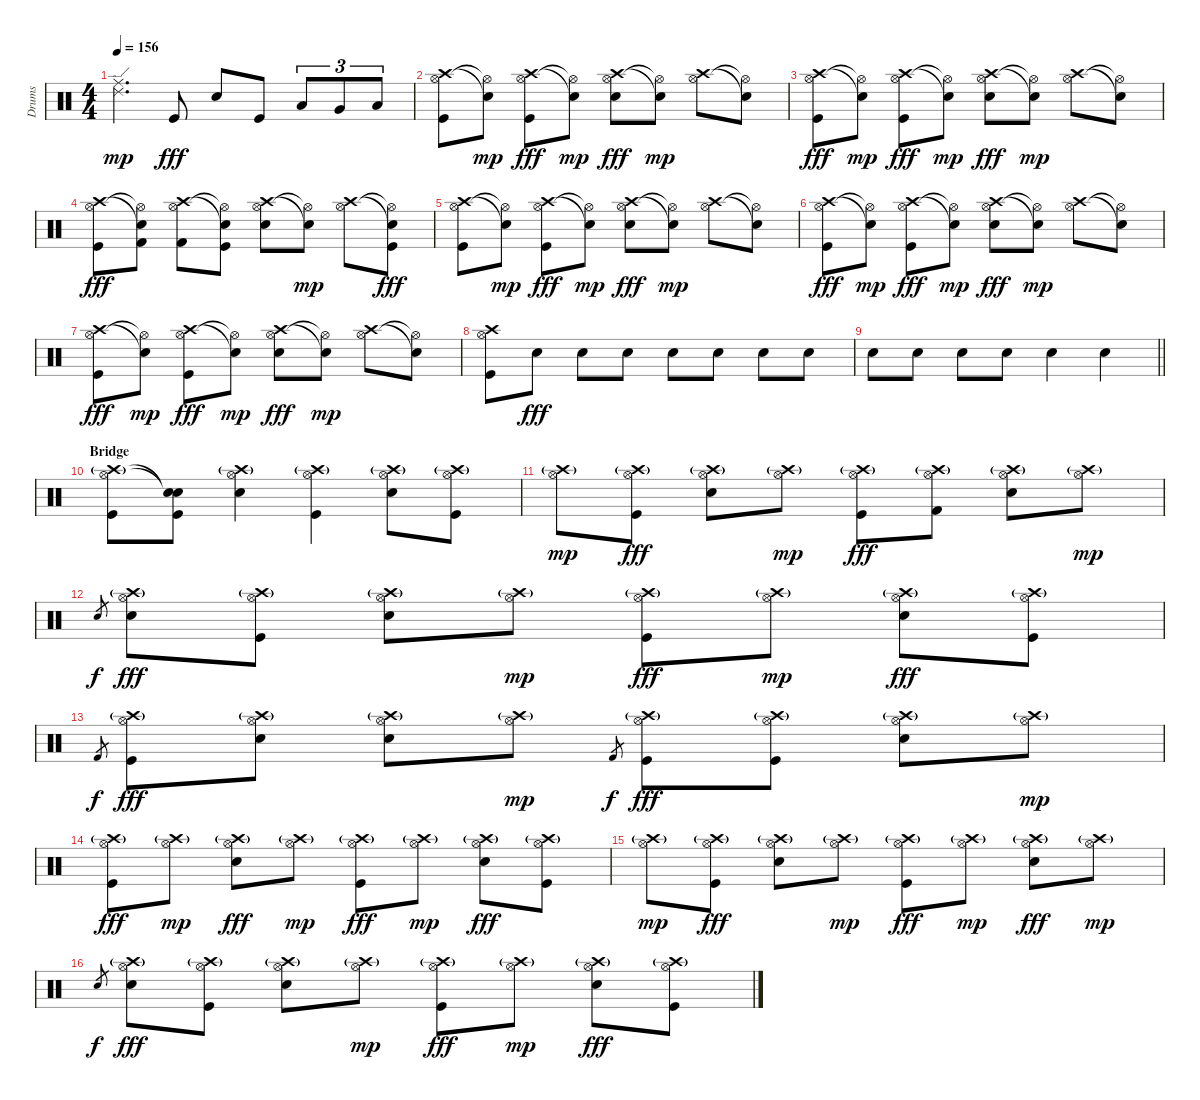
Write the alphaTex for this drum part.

\track ("Drums" "Drums") {instrument percussion}
\staff {score}
\articulation defaults
\ts (4 4)
\tempo 156
\clef neutral
\ks c
("Ride (middle)" "Ride (edge) 2").4{d dy mp} "Kick (hit)".8{dy fff} "Snare (hit) 2".8 "Kick (hit)".8 "Low Tom (hit)".8{tu (3 2)} "Very Low Tom (hit)".8{tu (3 2)} "Low Floor Tom (hit)".8{tu (3 2)} |
("Crash high (hit)" "Hi-Hat (open)" "Kick (hit)").8 ("Snare (hit)"{t} "Hi-Hat (open)"{t}).8{dy mp} ("Crash high (hit)" "Hi-Hat (open)" "Kick (hit)").8{dy fff} ("Snare (hit)"{t} "Hi-Hat (open)"{t}).8{dy mp} ("Crash high (hit)" "Hi-Hat (open)" "Snare (hit) 2").8{dy fff} ("Snare (hit)"{t} "Hi-Hat (open)"{t}).8{dy mp} ("Crash high (hit)" "Hi-Hat (open)").8 ("Snare (hit)"{t} "Hi-Hat (open)"{t}).8 |
("Crash high (hit)" "Hi-Hat (open)" "Kick (hit)").8{dy fff} ("Snare (hit)"{t} "Hi-Hat (open)"{t}).8{dy mp} ("Crash high (hit)" "Hi-Hat (open)" "Kick (hit)").8{dy fff} ("Snare (hit)"{t} "Hi-Hat (open)"{t}).8{dy mp} ("Crash high (hit)" "Hi-Hat (open)" "Snare (hit) 2").8{dy fff} ("Snare (hit)"{t} "Hi-Hat (open)"{t}).8{dy mp} ("Crash high (hit)" "Hi-Hat (open)").8 ("Snare (hit)"{t} "Hi-Hat (open)"{t}).8 |
("Crash high (hit)" "Hi-Hat (open)" "Kick (hit)").8{dy fff} ("Snare (hit)"{t} "Hi-Hat (open)"{t} "Kick (hit) 2").8 ("Crash high (hit)" "Hi-Hat (open)" "Kick (hit) 2").8 ("Snare (hit)"{t} "Hi-Hat (open)"{t} "Kick (hit)").8 ("Crash high (hit)" "Hi-Hat (open)" "Snare (hit) 2").8 ("Snare (hit)"{t} "Hi-Hat (open)"{t}).8{dy mp} ("Crash high (hit)" "Hi-Hat (open)").8 ("Snare (hit)"{t} "Hi-Hat (open)"{t} "Kick (hit)").8{dy fff} |
("Crash high (hit)" "Hi-Hat (open)" "Kick (hit)").8 ("Snare (hit)"{t} "Hi-Hat (open)"{t}).8{dy mp} ("Crash high (hit)" "Hi-Hat (open)" "Kick (hit)").8{dy fff} ("Snare (hit)"{t} "Hi-Hat (open)"{t}).8{dy mp} ("Crash high (hit)" "Hi-Hat (open)" "Snare (hit) 2").8{dy fff} ("Snare (hit)"{t} "Hi-Hat (open)"{t}).8{dy mp} ("Crash high (hit)" "Hi-Hat (open)").8 ("Snare (hit)"{t} "Hi-Hat (open)"{t}).8 |
("Crash high (hit)" "Hi-Hat (open)" "Kick (hit)").8{dy fff} ("Snare (hit)"{t} "Hi-Hat (open)"{t}).8{dy mp} ("Crash high (hit)" "Hi-Hat (open)" "Kick (hit)").8{dy fff} ("Snare (hit)"{t} "Hi-Hat (open)"{t}).8{dy mp} ("Crash high (hit)" "Hi-Hat (open)" "Snare (hit) 2").8{dy fff} ("Snare (hit)"{t} "Hi-Hat (open)"{t}).8{dy mp} ("Crash high (hit)" "Hi-Hat (open)").8 ("Snare (hit)"{t} "Hi-Hat (open)"{t}).8 |
("Crash high (hit)" "Hi-Hat (open)" "Kick (hit)").8{dy fff} ("Snare (hit)"{t} "Hi-Hat (open)"{t}).8{dy mp} ("Crash high (hit)" "Hi-Hat (open)" "Kick (hit)").8{dy fff} ("Snare (hit)"{t} "Hi-Hat (open)"{t}).8{dy mp} ("Crash high (hit)" "Hi-Hat (open)" "Snare (hit) 2").8{dy fff} ("Snare (hit)"{t} "Hi-Hat (open)"{t}).8{dy mp} ("Crash high (hit)" "Hi-Hat (open)").8 ("Snare (hit)"{t} "Hi-Hat (open)"{t}).8 |
("Crash high (hit)" "Hi-Hat (open)" "Kick (hit)").8 "Electric Snare (hit)".8{dy fff} "Electric Snare (hit)".8 "Electric Snare (hit)".8 "Electric Snare (hit)".8 "Electric Snare (hit)".8 "Electric Snare (hit)".8 "Electric Snare (hit)".8 |
\barLineRight lightlight "Electric Snare (hit)".8 "Electric Snare (hit)".8 "Electric Snare (hit)".8 "Electric Snare (hit)".8 "Electric Snare (hit)".4 "Electric Snare (hit)".4
|
\section ("" "Bridge")
("Crash high (hit)"{g} "Hi-Hat (open)" "Kick (hit)").8 ("Snare (hit)"{t} "Snare (hit)"{t} "Kick (hit)").8 ("Crash high (hit)"{g} "Hi-Hat (open)" "Snare (hit) 2").4 ("Crash high (hit)"{g} "Hi-Hat (open)" "Kick (hit)").4 ("Crash high (hit)"{g} "Hi-Hat (open)" "Snare (hit) 2").8 ("Crash high (hit)"{g} "Hi-Hat (open)" "Kick (hit)").8 |
("Crash high (hit)"{g} "Hi-Hat (open)").8{dy mp} ("Crash high (hit)"{g} "Hi-Hat (open)" "Kick (hit)").8{dy fff} ("Crash high (hit)"{g} "Hi-Hat (open)" "Snare (hit) 2").8 ("Crash high (hit)"{g} "Hi-Hat (open)").8{dy mp} ("Crash high (hit)"{g} "Hi-Hat (open)" "Kick (hit)").8{dy fff} ("Crash high (hit)"{g} "Hi-Hat (open)" "Kick (hit) 2").8 ("Crash high (hit)"{g} "Hi-Hat (open)" "Snare (hit) 2").8 ("Crash high (hit)"{g} "Hi-Hat (open)").8{dy mp} |
"Snare (hit) 2".8{gr dy f} ("Crash high (hit)"{g} "Hi-Hat (open)" "Snare (hit) 2").8{dy fff} ("Crash high (hit)"{g} "Hi-Hat (open)" "Kick (hit)").8 ("Crash high (hit)"{g} "Hi-Hat (open)" "Snare (hit) 2").8 ("Crash high (hit)"{g} "Hi-Hat (open)").8{dy mp} ("Crash high (hit)"{g} "Hi-Hat (open)" "Kick (hit)").8{dy fff} ("Crash high (hit)"{g} "Hi-Hat (open)").8{dy mp} ("Crash high (hit)"{g} "Hi-Hat (open)" "Snare (hit) 2").8{dy fff} ("Crash high (hit)"{g} "Hi-Hat (open)" "Kick (hit)").8 |
"Kick (hit) 2".8{gr dy f} ("Crash high (hit)"{g} "Hi-Hat (open)" "Kick (hit)").8{dy fff} ("Crash high (hit)"{g} "Hi-Hat (open)" "Snare (hit) 2").8 ("Crash high (hit)"{g} "Hi-Hat (open)" "Snare (hit) 2").8 ("Crash high (hit)"{g} "Hi-Hat (open)").8{dy mp} "Kick (hit) 2".8{gr dy f} ("Crash high (hit)"{g} "Hi-Hat (open)" "Kick (hit)").8{dy fff} ("Crash high (hit)"{g} "Hi-Hat (open)" "Kick (hit)").8 ("Crash high (hit)"{g} "Hi-Hat (open)" "Snare (hit) 2").8 ("Crash high (hit)"{g} "Hi-Hat (open)").8{dy mp} |
("Crash high (hit)"{g} "Hi-Hat (open)" "Kick (hit)").8{dy fff} ("Crash high (hit)"{g} "Hi-Hat (open)").8{dy mp} ("Crash high (hit)"{g} "Hi-Hat (open)" "Snare (hit) 2").8{dy fff} ("Crash high (hit)"{g} "Hi-Hat (open)").8{dy mp} ("Crash high (hit)"{g} "Hi-Hat (open)" "Kick (hit)").8{dy fff} ("Crash high (hit)"{g} "Hi-Hat (open)").8{dy mp} ("Crash high (hit)"{g} "Hi-Hat (open)" "Snare (hit) 2").8{dy fff} ("Crash high (hit)"{g} "Hi-Hat (open)" "Kick (hit)").8 |
("Crash high (hit)"{g} "Hi-Hat (open)").8{dy mp} ("Crash high (hit)"{g} "Hi-Hat (open)" "Kick (hit)").8{dy fff} ("Crash high (hit)"{g} "Hi-Hat (open)" "Snare (hit) 2").8 ("Crash high (hit)"{g} "Hi-Hat (open)").8{dy mp} ("Crash high (hit)"{g} "Hi-Hat (open)" "Kick (hit)").8{dy fff} ("Crash high (hit)"{g} "Hi-Hat (open)").8{dy mp} ("Crash high (hit)"{g} "Hi-Hat (open)" "Snare (hit) 2").8{dy fff} ("Crash high (hit)"{g} "Hi-Hat (open)").8{dy mp} |
"Snare (hit) 2".8{gr dy f} ("Crash high (hit)"{g} "Hi-Hat (open)" "Snare (hit) 2").8{dy fff} ("Crash high (hit)"{g} "Hi-Hat (open)" "Kick (hit)").8 ("Crash high (hit)"{g} "Hi-Hat (open)" "Snare (hit) 2").8 ("Crash high (hit)"{g} "Hi-Hat (open)").8{dy mp} ("Crash high (hit)"{g} "Hi-Hat (open)" "Kick (hit)").8{dy fff} ("Crash high (hit)"{g} "Hi-Hat (open)").8{dy mp} ("Crash high (hit)"{g} "Hi-Hat (open)" "Snare (hit) 2").8{dy fff} ("Crash high (hit)"{g} "Hi-Hat (open)" "Kick (hit)").8
